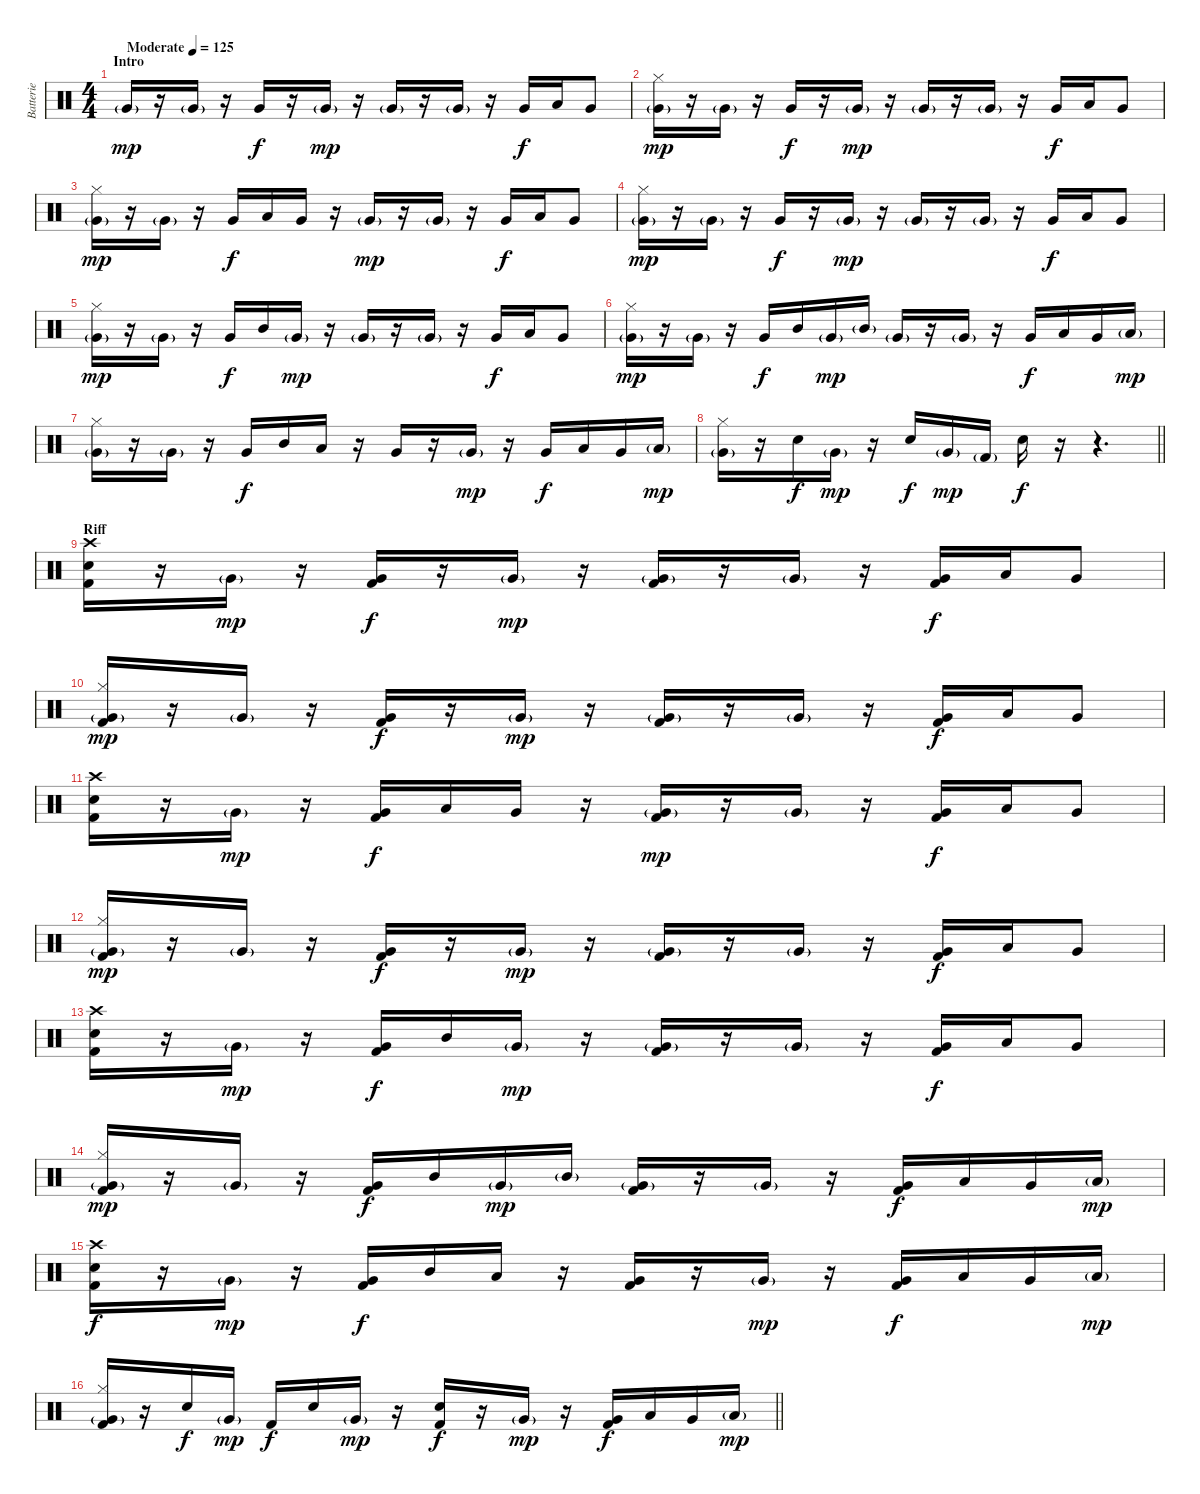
\track ("Batterie" "Batterie") {instrument percussion}
\staff {score}
\articulation defaults
\ts (4 4)
\section ("" "Intro")
\tempo (125 "Moderate")
\clef neutral
\ks c "Very Low Tom (hit)"{g}.16{dy mp}
r.16 "Very Low Tom (hit)"{g}.16 r.16 "Very Low Tom (hit)".16{dy f} r.16 "Very Low Tom (hit)"{g}.16{dy mp} r.16 "Very Low Tom (hit)"{g}.16 r.16 "Very Low Tom (hit)"{g}.16 r.16 "Very Low Tom (hit)".16{dy f} "Low Tom (hit)".16 "Very Low Tom (hit)".8 |
("Hi-Hat (closed)" "Very Low Tom (hit)"{g}).16{dy mp} r.16 "Very Low Tom (hit)"{g}.16 r.16 "Very Low Tom (hit)".16{dy f} r.16 "Very Low Tom (hit)"{g}.16{dy mp} r.16 "Very Low Tom (hit)"{g}.16 r.16 "Very Low Tom (hit)"{g}.16 r.16 "Very Low Tom (hit)".16{dy f} "Low Tom (hit)".16 "Very Low Tom (hit)".8 |
("Hi-Hat (closed)" "Very Low Tom (hit)"{g}).16{dy mp} r.16 "Very Low Tom (hit)"{g}.16 r.16 "Very Low Tom (hit)".16{dy f} "Low Tom (hit)".16 "Very Low Tom (hit)".16 r.16 "Very Low Tom (hit)"{g}.16{dy mp} r.16 "Very Low Tom (hit)"{g}.16 r.16 "Very Low Tom (hit)".16{dy f} "Low Tom (hit)".16 "Very Low Tom (hit)".8 |
("Hi-Hat (closed)" "Very Low Tom (hit)"{g}).16{dy mp} r.16 "Very Low Tom (hit)"{g}.16 r.16 "Very Low Tom (hit)".16{dy f} r.16 "Very Low Tom (hit)"{g}.16{dy mp} r.16 "Very Low Tom (hit)"{g}.16 r.16 "Very Low Tom (hit)"{g}.16 r.16 "Very Low Tom (hit)".16{dy f} "Low Tom (hit)".16 "Very Low Tom (hit)".8 |
("Hi-Hat (closed)" "Very Low Tom (hit)"{g}).16{dy mp} r.16 "Very Low Tom (hit)"{g}.16 r.16 "Very Low Tom (hit)".16{dy f} "Mid Tom (hit)".16 "Very Low Tom (hit)"{g}.16{dy mp} r.16 "Very Low Tom (hit)"{g}.16 r.16 "Very Low Tom (hit)"{g}.16 r.16 "Very Low Tom (hit)".16{dy f} "Low Tom (hit)".16 "Very Low Tom (hit)".8 |
("Hi-Hat (closed)" "Very Low Tom (hit)"{g}).16{dy mp} r.16 "Very Low Tom (hit)"{g}.16 r.16 "Very Low Tom (hit)".16{dy f} "Mid Tom (hit)".16 "Very Low Tom (hit)"{g}.16{dy mp} "Mid Tom (hit)"{g}.16 "Very Low Tom (hit)"{g}.16 r.16 "Very Low Tom (hit)"{g}.16 r.16 "Very Low Tom (hit)".16{dy f} "Low Tom (hit)".16 "Very Low Tom (hit)".16 "Low Tom (hit)"{g}.16{dy mp} |
("Hi-Hat (closed)" "Very Low Tom (hit)"{g}).16 r.16 "Very Low Tom (hit)"{g}.16 r.16 "Very Low Tom (hit)".16{dy f} "Mid Tom (hit)".16 "Low Tom (hit)".16 r.16 "Very Low Tom (hit)".16 r.16 "Very Low Tom (hit)"{g}.16{dy mp} r.16 "Very Low Tom (hit)".16{dy f} "Low Tom (hit)".16 "Very Low Tom (hit)".16 "Low Tom (hit)"{g}.16{dy mp} |
\barLineRight lightlight
("Hi-Hat (closed)" "Very Low Tom (hit)"{g}).16 r.16 "Electric Snare (hit)".16{dy f} "Very Low Tom (hit)"{g}.16{dy mp} r.16 "Electric Snare (hit)".16{dy f} "Very Low Tom (hit)"{g}.16{dy mp} "Kick (hit) 2"{g}.16 "Electric Snare (hit)".16{dy f} r.16 r.4{d} |
\section ("" "Riff")
("Crash high (hit)" "Electric Snare (hit)" "Kick (hit) 2").16 r.16 "Very Low Tom (hit)"{g}.16{dy mp} r.16 ("Very Low Tom (hit)" "Kick (hit) 2").16{dy f} r.16 "Very Low Tom (hit)"{g}.16{dy mp} r.16 ("Very Low Tom (hit)"{g} "Kick (hit) 2").16 r.16 "Very Low Tom (hit)"{g}.16 r.16 ("Very Low Tom (hit)" "Kick (hit) 2").16{dy f} "Low Tom (hit)".16 "Very Low Tom (hit)".8 |
("Hi-Hat (closed)" "Very Low Tom (hit)"{g} "Kick (hit) 2").16{dy mp} r.16 "Very Low Tom (hit)"{g}.16 r.16 ("Very Low Tom (hit)" "Kick (hit) 2").16{dy f} r.16 "Very Low Tom (hit)"{g}.16{dy mp} r.16 ("Very Low Tom (hit)"{g} "Kick (hit) 2").16 r.16 "Very Low Tom (hit)"{g}.16 r.16 ("Very Low Tom (hit)" "Kick (hit) 2").16{dy f} "Low Tom (hit)".16 "Very Low Tom (hit)".8 |
("Crash high (hit)" "Electric Snare (hit)" "Kick (hit) 2").16 r.16 "Very Low Tom (hit)"{g}.16{dy mp} r.16 ("Very Low Tom (hit)" "Kick (hit) 2").16{dy f} "Low Tom (hit)".16 "Very Low Tom (hit)".16 r.16 ("Very Low Tom (hit)"{g} "Kick (hit) 2").16{dy mp} r.16 "Very Low Tom (hit)"{g}.16 r.16 ("Very Low Tom (hit)" "Kick (hit) 2").16{dy f} "Low Tom (hit)".16 "Very Low Tom (hit)".8 |
("Hi-Hat (closed)" "Very Low Tom (hit)"{g} "Kick (hit) 2").16{dy mp} r.16 "Very Low Tom (hit)"{g}.16 r.16 ("Very Low Tom (hit)" "Kick (hit) 2").16{dy f} r.16 "Very Low Tom (hit)"{g}.16{dy mp} r.16 ("Very Low Tom (hit)"{g} "Kick (hit) 2").16 r.16 "Very Low Tom (hit)"{g}.16 r.16 ("Very Low Tom (hit)" "Kick (hit) 2").16{dy f} "Low Tom (hit)".16 "Very Low Tom (hit)".8 |
("Crash high (hit)" "Electric Snare (hit)" "Kick (hit) 2").16 r.16 "Very Low Tom (hit)"{g}.16{dy mp} r.16 ("Very Low Tom (hit)" "Kick (hit) 2").16{dy f} "Mid Tom (hit)".16 "Very Low Tom (hit)"{g}.16{dy mp} r.16 ("Very Low Tom (hit)"{g} "Kick (hit) 2").16 r.16 "Very Low Tom (hit)"{g}.16 r.16 ("Very Low Tom (hit)" "Kick (hit) 2").16{dy f} "Low Tom (hit)".16 "Very Low Tom (hit)".8 |
("Hi-Hat (closed)" "Very Low Tom (hit)"{g} "Kick (hit) 2").16{dy mp} r.16 "Very Low Tom (hit)"{g}.16 r.16 ("Very Low Tom (hit)" "Kick (hit) 2").16{dy f} "Mid Tom (hit)".16 "Very Low Tom (hit)"{g}.16{dy mp} "Mid Tom (hit)"{g}.16 ("Very Low Tom (hit)"{g} "Kick (hit) 2").16 r.16 "Very Low Tom (hit)"{g}.16 r.16 ("Very Low Tom (hit)" "Kick (hit) 2").16{dy f} "Low Tom (hit)".16 "Very Low Tom (hit)".16 "Low Tom (hit)"{g}.16{dy mp} |
("Crash high (hit)" "Electric Snare (hit)" "Kick (hit) 2").16{dy f} r.16 "Very Low Tom (hit)"{g}.16{dy mp} r.16 ("Very Low Tom (hit)" "Kick (hit) 2").16{dy f} "Mid Tom (hit)".16 "Low Tom (hit)".16 r.16 ("Very Low Tom (hit)" "Kick (hit) 2").16 r.16 "Very Low Tom (hit)"{g}.16{dy mp} r.16 ("Very Low Tom (hit)" "Kick (hit) 2").16{dy f} "Low Tom (hit)".16 "Very Low Tom (hit)".16 "Low Tom (hit)"{g}.16{dy mp} |
\barLineRight lightlight
("Hi-Hat (closed)" "Very Low Tom (hit)"{g} "Kick (hit) 2").16 r.16 "Electric Snare (hit)".16{dy f} "Very Low Tom (hit)"{g}.16{dy mp} "Kick (hit) 2".16{dy f} "Electric Snare (hit)".16 "Very Low Tom (hit)"{g}.16{dy mp} r.16 ("Electric Snare (hit)" "Kick (hit) 2").16{dy f} r.16 "Very Low Tom (hit)"{g}.16{dy mp} r.16 ("Very Low Tom (hit)" "Kick (hit) 2").16{dy f} "Low Tom (hit)".16 "Very Low Tom (hit)".16 "Low Tom (hit)"{g}.16{dy mp}
